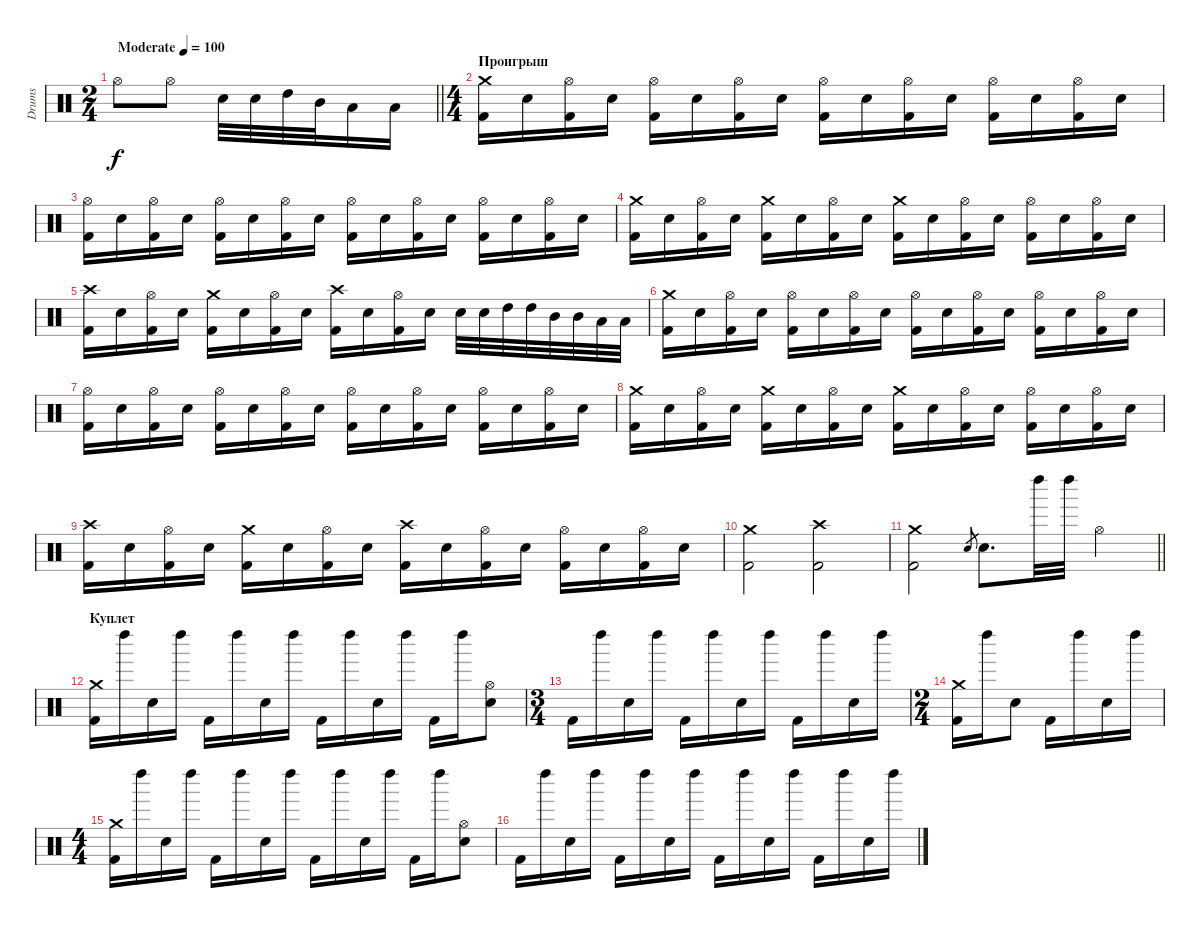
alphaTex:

\track ("Drums" "Drums") {instrument percussion}
\staff {score}
\articulation defaults
\ts (2 4)
\tempo (100 "Moderate")
\clef neutral
\barLineRight lightlight
\ks c "Hi-Hat (open)".8{dy f} "Hi-Hat (open)".8 "Snare (hit) 2".32 "Snare (hit) 2".32 "High Tom (hit)".32 "Mid Tom (hit)".32 "Low Tom (hit)".16 "Low Tom (hit)".16
|
\ts (4 4)
\section ("" "Проигрыш")
("Crash medium (hit)" "Kick (hit) 2").16 "Snare (hit) 2".16 ("Hi-Hat (open)" "Kick (hit) 2").16 "Snare (hit) 2".16 ("Hi-Hat (open)" "Kick (hit) 2").16 "Snare (hit) 2".16 ("Hi-Hat (open)" "Kick (hit) 2").16 "Snare (hit) 2".16 ("Hi-Hat (open)" "Kick (hit) 2").16 "Snare (hit) 2".16 ("Hi-Hat (open)" "Kick (hit) 2").16 "Snare (hit) 2".16 ("Hi-Hat (open)" "Kick (hit) 2").16 "Snare (hit) 2".16 ("Hi-Hat (open)" "Kick (hit) 2").16 "Snare (hit) 2".16 |
("Hi-Hat (open)" "Kick (hit) 2").16 "Snare (hit) 2".16 ("Hi-Hat (open)" "Kick (hit) 2").16 "Snare (hit) 2".16 ("Hi-Hat (open)" "Kick (hit) 2").16 "Snare (hit) 2".16 ("Hi-Hat (open)" "Kick (hit) 2").16 "Snare (hit) 2".16 ("Hi-Hat (open)" "Kick (hit) 2").16 "Snare (hit) 2".16 ("Hi-Hat (open)" "Kick (hit) 2").16 "Snare (hit) 2".16 ("Hi-Hat (open)" "Kick (hit) 2").16 "Snare (hit) 2".16 ("Hi-Hat (open)" "Kick (hit) 2").16 "Snare (hit) 2".16 |
("Crash medium (hit)" "Kick (hit) 2").16 "Snare (hit) 2".16 ("Hi-Hat (open)" "Kick (hit) 2").16 "Snare (hit) 2".16 ("Crash medium (hit)" "Kick (hit) 2").16 "Snare (hit) 2".16 ("Hi-Hat (open)" "Kick (hit) 2").16 "Snare (hit) 2".16 ("Crash medium (hit)" "Kick (hit) 2").16 "Snare (hit) 2".16 ("Hi-Hat (open)" "Kick (hit) 2").16 "Snare (hit) 2".16 ("Hi-Hat (open)" "Kick (hit) 2").16 "Snare (hit) 2".16 ("Hi-Hat (open)" "Kick (hit) 2").16 "Snare (hit) 2".16 |
("Crash high (hit)" "Kick (hit) 2").16 "Snare (hit) 2".16 ("Hi-Hat (open)" "Kick (hit) 2").16 "Snare (hit) 2".16 ("Crash medium (hit)" "Kick (hit) 2").16 "Snare (hit) 2".16 ("Hi-Hat (open)" "Kick (hit) 2").16 "Snare (hit) 2".16 ("Crash high (hit)" "Kick (hit) 2").16 "Snare (hit) 2".16 ("Hi-Hat (open)" "Kick (hit) 2").16 "Snare (hit) 2".16 "Snare (hit) 2".32 "Snare (hit) 2".32 "High Tom (hit)".32 "High Tom (hit)".32 "Mid Tom (hit)".32 "Mid Tom (hit)".32 "Low Tom (hit)".32 "Low Tom (hit)".32 |
("Crash medium (hit)" "Kick (hit) 2").16 "Snare (hit) 2".16 ("Hi-Hat (open)" "Kick (hit) 2").16 "Snare (hit) 2".16 ("Hi-Hat (open)" "Kick (hit) 2").16 "Snare (hit) 2".16 ("Hi-Hat (open)" "Kick (hit) 2").16 "Snare (hit) 2".16 ("Hi-Hat (open)" "Kick (hit) 2").16 "Snare (hit) 2".16 ("Hi-Hat (open)" "Kick (hit) 2").16 "Snare (hit) 2".16 ("Hi-Hat (open)" "Kick (hit) 2").16 "Snare (hit) 2".16 ("Hi-Hat (open)" "Kick (hit) 2").16 "Snare (hit) 2".16 |
("Hi-Hat (open)" "Kick (hit) 2").16 "Snare (hit) 2".16 ("Hi-Hat (open)" "Kick (hit) 2").16 "Snare (hit) 2".16 ("Hi-Hat (open)" "Kick (hit) 2").16 "Snare (hit) 2".16 ("Hi-Hat (open)" "Kick (hit) 2").16 "Snare (hit) 2".16 ("Hi-Hat (open)" "Kick (hit) 2").16 "Snare (hit) 2".16 ("Hi-Hat (open)" "Kick (hit) 2").16 "Snare (hit) 2".16 ("Hi-Hat (open)" "Kick (hit) 2").16 "Snare (hit) 2".16 ("Hi-Hat (open)" "Kick (hit) 2").16 "Snare (hit) 2".16 |
("Crash medium (hit)" "Kick (hit) 2").16 "Snare (hit) 2".16 ("Hi-Hat (open)" "Kick (hit) 2").16 "Snare (hit) 2".16 ("Crash medium (hit)" "Kick (hit) 2").16 "Snare (hit) 2".16 ("Hi-Hat (open)" "Kick (hit) 2").16 "Snare (hit) 2".16 ("Crash medium (hit)" "Kick (hit) 2").16 "Snare (hit) 2".16 ("Hi-Hat (open)" "Kick (hit) 2").16 "Snare (hit) 2".16 ("Hi-Hat (open)" "Kick (hit) 2").16 "Snare (hit) 2".16 ("Hi-Hat (open)" "Kick (hit) 2").16 "Snare (hit) 2".16 |
("Crash high (hit)" "Kick (hit) 2").16 "Snare (hit) 2".16 ("Hi-Hat (open)" "Kick (hit) 2").16 "Snare (hit) 2".16 ("Crash medium (hit)" "Kick (hit) 2").16 "Snare (hit) 2".16 ("Hi-Hat (open)" "Kick (hit) 2").16 "Snare (hit) 2".16 ("Crash high (hit)" "Kick (hit) 2").16 "Snare (hit) 2".16 ("Hi-Hat (open)" "Kick (hit) 2").16 "Snare (hit) 2".16 ("Hi-Hat (open)" "Kick (hit) 2").16 "Snare (hit) 2".16 ("Hi-Hat (open)" "Kick (hit) 2").16 "Snare (hit) 2".16 |
("Crash medium (hit)" "Kick (hit) 2").2 ("Crash high (hit)" "Kick (hit) 2").2 |
\barLineRight lightlight
("Crash medium (hit)" "Kick (hit) 2").2 "Snare (hit) 2".8{gr} "Snare (hit) 2".8{d} "Left Maraca (hit)".32 "Left Maraca (hit)".32 "Hi-Hat (open)".4 |
\section ("" "Куплет")
("Crash medium (hit)" "Kick (hit) 2").16 "Left Maraca (hit)".16 "Snare (hit) 2".16 "Left Maraca (hit)".16 "Kick (hit) 2".16 "Left Maraca (hit)".16 "Snare (hit) 2".16 "Left Maraca (hit)".16 "Kick (hit) 2".16 "Left Maraca (hit)".16 "Snare (hit) 2".16 "Left Maraca (hit)".16 "Kick (hit) 2".16 "Left Maraca (hit)".16 ("Hi-Hat (open)" "Snare (hit) 2").8 |
\ts (3 4)
"Kick (hit) 2".16 "Left Maraca (hit)".16 "Snare (hit) 2".16 "Left Maraca (hit)".16 "Kick (hit) 2".16 "Left Maraca (hit)".16 "Snare (hit) 2".16 "Left Maraca (hit)".16 "Kick (hit) 2".16 "Left Maraca (hit)".16 "Snare (hit) 2".16 "Left Maraca (hit)".16 |
\ts (2 4)
("Crash medium (hit)" "Kick (hit) 2").16 "Left Maraca (hit)".16 "Snare (hit) 2".8 "Kick (hit) 2".16 "Left Maraca (hit)".16 "Snare (hit) 2".16 "Left Maraca (hit)".16 |
\ts (4 4)
("Crash medium (hit)" "Kick (hit) 2").16 "Left Maraca (hit)".16 "Snare (hit) 2".16 "Left Maraca (hit)".16 "Kick (hit) 2".16 "Left Maraca (hit)".16 "Snare (hit) 2".16 "Left Maraca (hit)".16 "Kick (hit) 2".16 "Left Maraca (hit)".16 "Snare (hit) 2".16 "Left Maraca (hit)".16 "Kick (hit) 2".16 "Left Maraca (hit)".16 ("Hi-Hat (open)" "Snare (hit) 2").8 |
"Kick (hit) 2".16 "Left Maraca (hit)".16 "Snare (hit) 2".16 "Left Maraca (hit)".16 "Kick (hit) 2".16 "Left Maraca (hit)".16 "Snare (hit) 2".16 "Left Maraca (hit)".16 "Kick (hit) 2".16 "Left Maraca (hit)".16 "Snare (hit) 2".16 "Left Maraca (hit)".16 "Kick (hit) 2".16 "Left Maraca (hit)".16 "Snare (hit) 2".16 "Left Maraca (hit)".16
